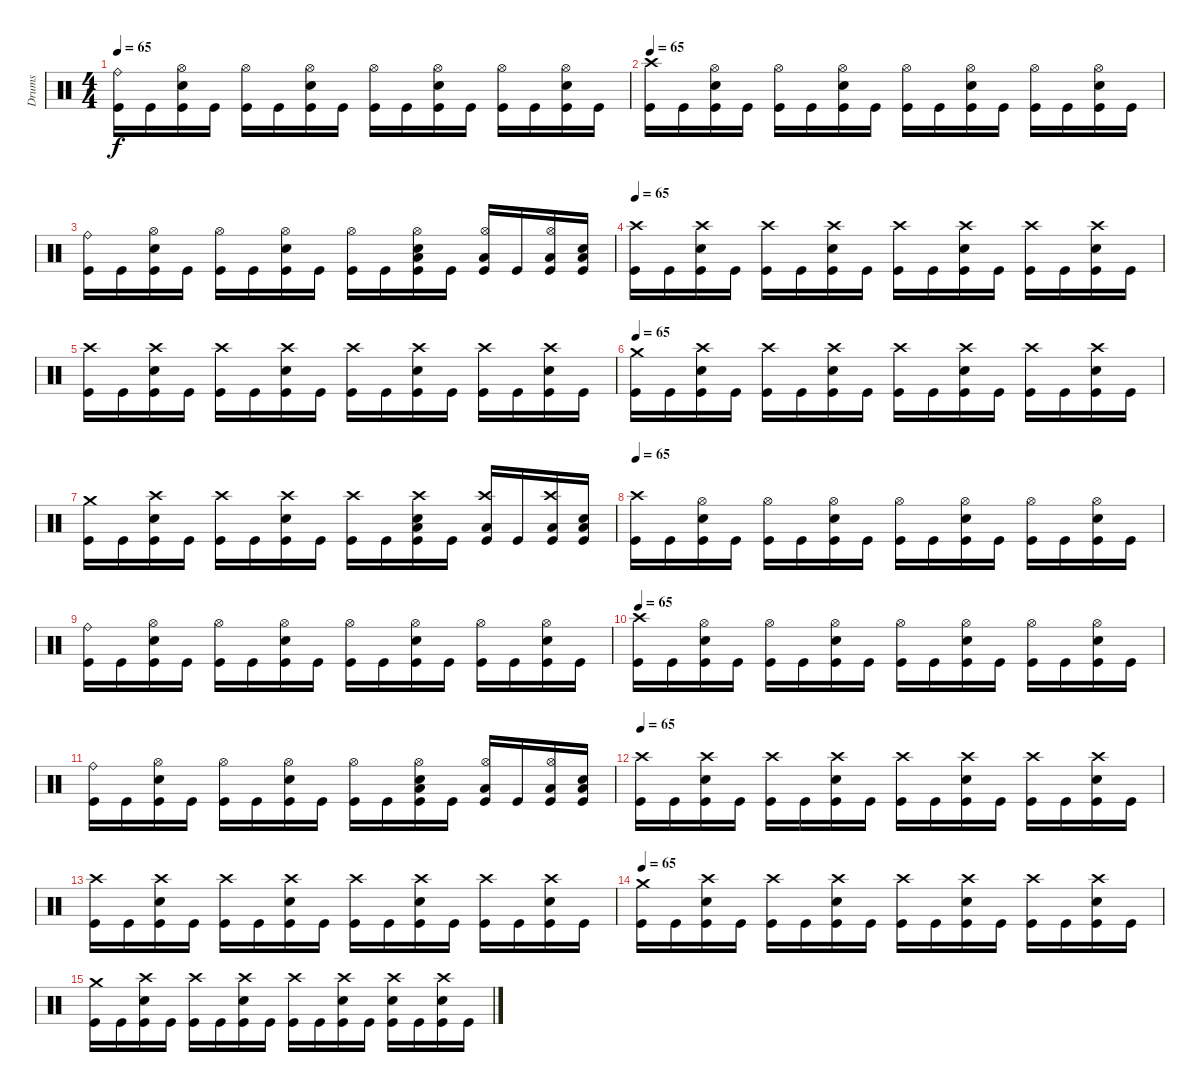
\track ("Drums" "Drums") {instrument percussion}
\staff {score}
\articulation defaults
\ts (4 4)
\tempo 65
\clef neutral
\ks c
("Ride (bell)" "Kick (hit)").16{dy f} "Kick (hit)".16 ("Hi-Hat (open)" "Electric Snare (hit)" "Kick (hit)").16 "Kick (hit)".16 ("Hi-Hat (open)" "Kick (hit)").16 "Kick (hit)".16 ("Hi-Hat (open)" "Electric Snare (hit)" "Kick (hit)").16 "Kick (hit)".16 ("Hi-Hat (open)" "Kick (hit)").16 "Kick (hit)".16 ("Hi-Hat (open)" "Electric Snare (hit)" "Kick (hit)").16 "Kick (hit)".16 ("Hi-Hat (open)" "Kick (hit)").16 "Kick (hit)".16 ("Hi-Hat (open)" "Electric Snare (hit)" "Kick (hit)").16 "Kick (hit)".16 |
\tempo 65
("Crash high (hit)" "Kick (hit)").16 "Kick (hit)".16 ("Hi-Hat (open)" "Electric Snare (hit)" "Kick (hit)").16 "Kick (hit)".16 ("Hi-Hat (open)" "Kick (hit)").16 "Kick (hit)".16 ("Hi-Hat (open)" "Electric Snare (hit)" "Kick (hit)").16 "Kick (hit)".16 ("Hi-Hat (open)" "Kick (hit)").16 "Kick (hit)".16 ("Hi-Hat (open)" "Electric Snare (hit)" "Kick (hit)").16 "Kick (hit)".16 ("Hi-Hat (open)" "Kick (hit)").16 "Kick (hit)".16 ("Hi-Hat (open)" "Electric Snare (hit)" "Kick (hit)").16 "Kick (hit)".16 |
("Ride (bell)" "Kick (hit)").16 "Kick (hit)".16 ("Hi-Hat (open)" "Electric Snare (hit)" "Kick (hit)").16 "Kick (hit)".16 ("Hi-Hat (open)" "Kick (hit)").16 "Kick (hit)".16 ("Hi-Hat (open)" "Electric Snare (hit)" "Kick (hit)").16 "Kick (hit)".16 ("Hi-Hat (open)" "Kick (hit)").16 "Kick (hit)".16 ("Hi-Hat (open)" "Low Tom (hit)" "Electric Snare (hit)" "Kick (hit)").16 "Kick (hit)".16 ("Hi-Hat (open)" "Low Tom (hit)" "Kick (hit)").16 "Kick (hit)".16 ("Hi-Hat (open)" "Low Tom (hit)" "Kick (hit)").16 ("Low Tom (hit)" "Electric Snare (hit)" "Kick (hit)").16 |
\tempo 65
("Crash high (hit)" "Kick (hit)").16 "Kick (hit)".16 ("Crash high (hit)" "Electric Snare (hit)" "Kick (hit)").16 "Kick (hit)".16 ("Crash high (hit)" "Kick (hit)").16 "Kick (hit)".16 ("Crash high (hit)" "Electric Snare (hit)" "Kick (hit)").16 "Kick (hit)".16 ("Crash high (hit)" "Kick (hit)").16 "Kick (hit)".16 ("Crash high (hit)" "Electric Snare (hit)" "Kick (hit)").16 "Kick (hit)".16 ("Crash high (hit)" "Kick (hit)").16 "Kick (hit)".16 ("Crash high (hit)" "Electric Snare (hit)" "Kick (hit)").16 "Kick (hit)".16 |
("Crash high (hit)" "Kick (hit)").16 "Kick (hit)".16 ("Crash high (hit)" "Electric Snare (hit)" "Kick (hit)").16 "Kick (hit)".16 ("Crash high (hit)" "Kick (hit)").16 "Kick (hit)".16 ("Crash high (hit)" "Electric Snare (hit)" "Kick (hit)").16 "Kick (hit)".16 ("Crash high (hit)" "Kick (hit)").16 "Kick (hit)".16 ("Crash high (hit)" "Electric Snare (hit)" "Kick (hit)").16 "Kick (hit)".16 ("Crash high (hit)" "Kick (hit)").16 "Kick (hit)".16 ("Crash high (hit)" "Electric Snare (hit)" "Kick (hit)").16 "Kick (hit)".16 |
\tempo 65
("Crash medium (hit)" "Kick (hit)").16 "Kick (hit)".16 ("Crash high (hit)" "Electric Snare (hit)" "Kick (hit)").16 "Kick (hit)".16 ("Crash high (hit)" "Kick (hit)").16 "Kick (hit)".16 ("Crash high (hit)" "Electric Snare (hit)" "Kick (hit)").16 "Kick (hit)".16 ("Crash high (hit)" "Kick (hit)").16 "Kick (hit)".16 ("Crash high (hit)" "Electric Snare (hit)" "Kick (hit)").16 "Kick (hit)".16 ("Crash high (hit)" "Kick (hit)").16 "Kick (hit)".16 ("Crash high (hit)" "Electric Snare (hit)" "Kick (hit)").16 "Kick (hit)".16 |
("Crash medium (hit)" "Kick (hit)").16 "Kick (hit)".16 ("Crash high (hit)" "Electric Snare (hit)" "Kick (hit)").16 "Kick (hit)".16 ("Crash high (hit)" "Kick (hit)").16 "Kick (hit)".16 ("Crash high (hit)" "Electric Snare (hit)" "Kick (hit)").16 "Kick (hit)".16 ("Crash high (hit)" "Kick (hit)").16 "Kick (hit)".16 ("Crash high (hit)" "Low Tom (hit)" "Electric Snare (hit)" "Kick (hit)").16 "Kick (hit)".16 ("Crash high (hit)" "Low Tom (hit)" "Kick (hit)").16 "Kick (hit)".16 ("Crash high (hit)" "Low Tom (hit)" "Kick (hit)").16 ("Low Tom (hit)" "Electric Snare (hit)" "Kick (hit)").16 |
\tempo 65
("Crash high (hit)" "Kick (hit)").16 "Kick (hit)".16 ("Hi-Hat (open)" "Electric Snare (hit)" "Kick (hit)").16 "Kick (hit)".16 ("Hi-Hat (open)" "Kick (hit)").16 "Kick (hit)".16 ("Hi-Hat (open)" "Electric Snare (hit)" "Kick (hit)").16 "Kick (hit)".16 ("Hi-Hat (open)" "Kick (hit)").16 "Kick (hit)".16 ("Hi-Hat (open)" "Electric Snare (hit)" "Kick (hit)").16 "Kick (hit)".16 ("Hi-Hat (open)" "Kick (hit)").16 "Kick (hit)".16 ("Hi-Hat (open)" "Electric Snare (hit)" "Kick (hit)").16 "Kick (hit)".16 |
("Ride (bell)" "Kick (hit)").16 "Kick (hit)".16 ("Hi-Hat (open)" "Electric Snare (hit)" "Kick (hit)").16 "Kick (hit)".16 ("Hi-Hat (open)" "Kick (hit)").16 "Kick (hit)".16 ("Hi-Hat (open)" "Electric Snare (hit)" "Kick (hit)").16 "Kick (hit)".16 ("Hi-Hat (open)" "Kick (hit)").16 "Kick (hit)".16 ("Hi-Hat (open)" "Electric Snare (hit)" "Kick (hit)").16 "Kick (hit)".16 ("Hi-Hat (open)" "Kick (hit)").16 "Kick (hit)".16 ("Hi-Hat (open)" "Electric Snare (hit)" "Kick (hit)").16 "Kick (hit)".16 |
\tempo 65
("Crash high (hit)" "Kick (hit)").16 "Kick (hit)".16 ("Hi-Hat (open)" "Electric Snare (hit)" "Kick (hit)").16 "Kick (hit)".16 ("Hi-Hat (open)" "Kick (hit)").16 "Kick (hit)".16 ("Hi-Hat (open)" "Electric Snare (hit)" "Kick (hit)").16 "Kick (hit)".16 ("Hi-Hat (open)" "Kick (hit)").16 "Kick (hit)".16 ("Hi-Hat (open)" "Electric Snare (hit)" "Kick (hit)").16 "Kick (hit)".16 ("Hi-Hat (open)" "Kick (hit)").16 "Kick (hit)".16 ("Hi-Hat (open)" "Electric Snare (hit)" "Kick (hit)").16 "Kick (hit)".16 |
("Ride (bell)" "Kick (hit)").16 "Kick (hit)".16 ("Hi-Hat (open)" "Electric Snare (hit)" "Kick (hit)").16 "Kick (hit)".16 ("Hi-Hat (open)" "Kick (hit)").16 "Kick (hit)".16 ("Hi-Hat (open)" "Electric Snare (hit)" "Kick (hit)").16 "Kick (hit)".16 ("Hi-Hat (open)" "Kick (hit)").16 "Kick (hit)".16 ("Hi-Hat (open)" "Low Tom (hit)" "Electric Snare (hit)" "Kick (hit)").16 "Kick (hit)".16 ("Hi-Hat (open)" "Low Tom (hit)" "Kick (hit)").16 "Kick (hit)".16 ("Hi-Hat (open)" "Low Tom (hit)" "Kick (hit)").16 ("Low Tom (hit)" "Electric Snare (hit)" "Kick (hit)").16 |
\tempo 65
("Crash high (hit)" "Kick (hit)").16 "Kick (hit)".16 ("Crash high (hit)" "Electric Snare (hit)" "Kick (hit)").16 "Kick (hit)".16 ("Crash high (hit)" "Kick (hit)").16 "Kick (hit)".16 ("Crash high (hit)" "Electric Snare (hit)" "Kick (hit)").16 "Kick (hit)".16 ("Crash high (hit)" "Kick (hit)").16 "Kick (hit)".16 ("Crash high (hit)" "Electric Snare (hit)" "Kick (hit)").16 "Kick (hit)".16 ("Crash high (hit)" "Kick (hit)").16 "Kick (hit)".16 ("Crash high (hit)" "Electric Snare (hit)" "Kick (hit)").16 "Kick (hit)".16 |
("Crash high (hit)" "Kick (hit)").16 "Kick (hit)".16 ("Crash high (hit)" "Electric Snare (hit)" "Kick (hit)").16 "Kick (hit)".16 ("Crash high (hit)" "Kick (hit)").16 "Kick (hit)".16 ("Crash high (hit)" "Electric Snare (hit)" "Kick (hit)").16 "Kick (hit)".16 ("Crash high (hit)" "Kick (hit)").16 "Kick (hit)".16 ("Crash high (hit)" "Electric Snare (hit)" "Kick (hit)").16 "Kick (hit)".16 ("Crash high (hit)" "Kick (hit)").16 "Kick (hit)".16 ("Crash high (hit)" "Electric Snare (hit)" "Kick (hit)").16 "Kick (hit)".16 |
\tempo 65
("Crash medium (hit)" "Kick (hit)").16 "Kick (hit)".16 ("Crash high (hit)" "Electric Snare (hit)" "Kick (hit)").16 "Kick (hit)".16 ("Crash high (hit)" "Kick (hit)").16 "Kick (hit)".16 ("Crash high (hit)" "Electric Snare (hit)" "Kick (hit)").16 "Kick (hit)".16 ("Crash high (hit)" "Kick (hit)").16 "Kick (hit)".16 ("Crash high (hit)" "Electric Snare (hit)" "Kick (hit)").16 "Kick (hit)".16 ("Crash high (hit)" "Kick (hit)").16 "Kick (hit)".16 ("Crash high (hit)" "Electric Snare (hit)" "Kick (hit)").16 "Kick (hit)".16 |
("Crash medium (hit)" "Kick (hit)").16 "Kick (hit)".16 ("Crash high (hit)" "Electric Snare (hit)" "Kick (hit)").16 "Kick (hit)".16 ("Crash high (hit)" "Kick (hit)").16 "Kick (hit)".16 ("Crash high (hit)" "Electric Snare (hit)" "Kick (hit)").16 "Kick (hit)".16 ("Crash high (hit)" "Kick (hit)").16 "Kick (hit)".16 ("Crash high (hit)" "Electric Snare (hit)" "Kick (hit)").16 "Kick (hit)".16 ("Crash high (hit)" "Electric Snare (hit)" "Kick (hit)").16 "Kick (hit)".16 ("Crash high (hit)" "Electric Snare (hit)" "Kick (hit)").16 "Kick (hit)".16
